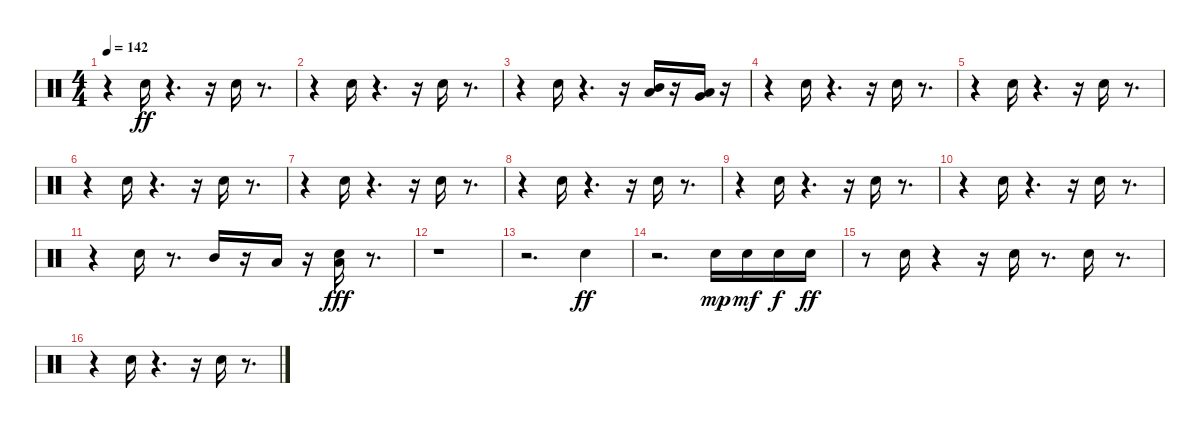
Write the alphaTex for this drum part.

\track "" {instrument percussion}
\staff {score}
\articulation defaults
\ts (4 4)
\tempo 142
\clef neutral
\ks c
r.4{dy ff} "Snare (hit) 2".16 r.4{d} r.16 "Snare (hit) 2".16 r.8{d} |
r.4 "Snare (hit) 2".16 r.4{d} r.16 "Snare (hit) 2".16 r.8{d} |
r.4 "Snare (hit) 2".16 r.4{d} r.16 ("Low Tom (hit)" "Mid Tom (hit)").16{balance 0} r.16 ("Very Low Tom (hit)" "Low Tom (hit)").16{balance 16} r.16 |
r.4 "Snare (hit) 2".16{balance 8} r.4{d} r.16 "Snare (hit) 2".16 r.8{d} |
r.4 "Snare (hit) 2".16 r.4{d} r.16 "Snare (hit) 2".16 r.8{d} |
r.4 "Snare (hit) 2".16 r.4{d} r.16 "Snare (hit) 2".16 r.8{d} |
r.4 "Snare (hit) 2".16 r.4{d} r.16 "Snare (hit) 2".16 r.8{d} |
r.4 "Snare (hit) 2".16 r.4{d} r.16 "Snare (hit) 2".16 r.8{d} |
r.4 "Snare (hit) 2".16 r.4{d} r.16 "Snare (hit) 2".16 r.8{d} |
r.4 "Snare (hit) 2".16 r.4{d} r.16 "Snare (hit) 2".16 r.8{d} |
r.4 "Snare (hit) 2".16 r.8{d} "Mid Tom (hit)".16{balance 0} r.16 "Low Tom (hit)".16{balance 16} r.16 ("Low Tom (hit)" "Snare (hit) 2").16{dy fff balance 8} r.8{d} |
r.1 |
r.2{d} "Snare (hit) 2".4{dy ff} |
r.2{d} "Snare (hit) 2".16{dy mp} "Snare (hit) 2".16{dy mf} "Snare (hit) 2".16{dy f} "Snare (hit) 2".16{dy ff} |
r.8 "Snare (hit) 2".16 r.4 r.16 "Snare (hit) 2".16 r.8{d} "Snare (hit) 2".16 r.8{d} |
r.4 "Snare (hit) 2".16 r.4{d} r.16 "Snare (hit) 2".16 r.8{d}
